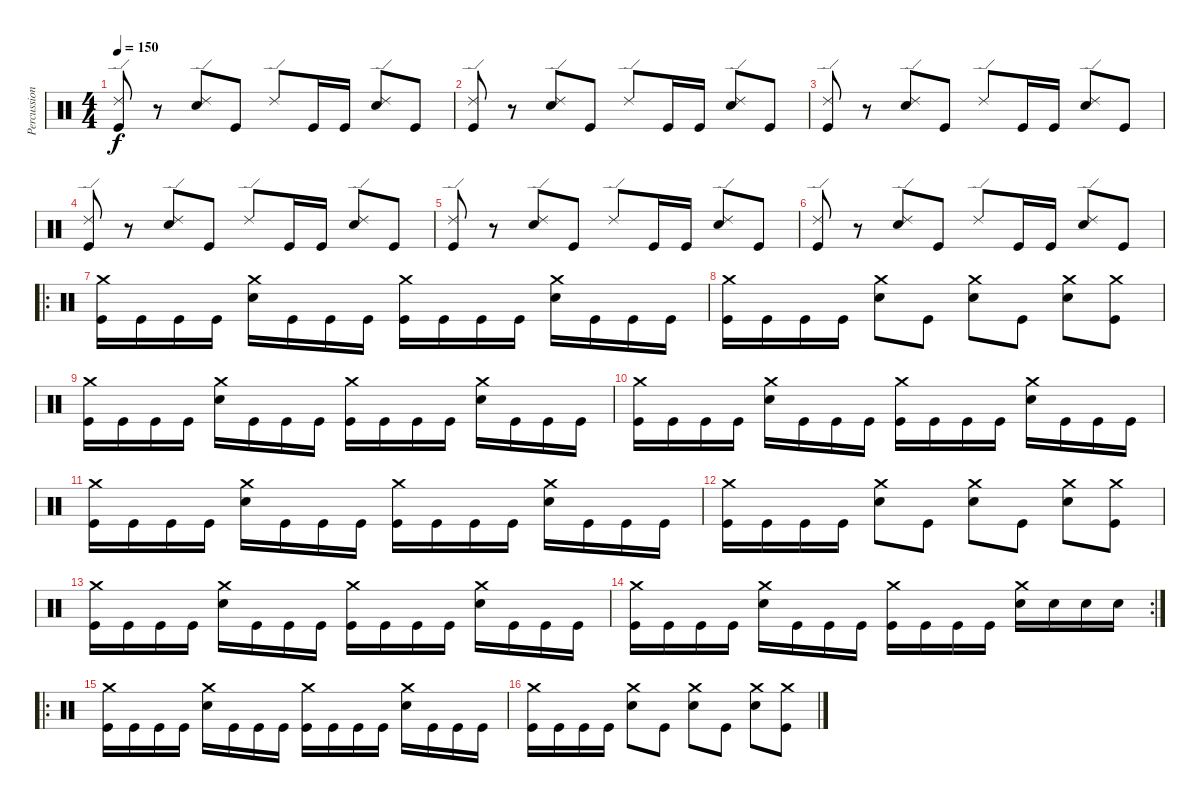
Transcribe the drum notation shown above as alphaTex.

\track ("Percussion" "Percussion") {instrument percussion}
\staff {score}
\articulation defaults
\ts (4 4)
\tempo 150
\clef neutral
\ks c
("Ride (edge) 2" "Kick (hit)").8{dy f} r.8 ("Ride (edge) 2" "Electric Snare (hit)").8 "Kick (hit)".8 "Ride (edge) 2".8 "Kick (hit)".16 "Kick (hit)".16 ("Ride (edge) 2" "Electric Snare (hit)").8 "Kick (hit)".8 |
("Ride (edge) 2" "Kick (hit)").8 r.8 ("Ride (edge) 2" "Electric Snare (hit)").8 "Kick (hit)".8 "Ride (edge) 2".8 "Kick (hit)".16 "Kick (hit)".16 ("Ride (edge) 2" "Electric Snare (hit)").8 "Kick (hit)".8 |
("Ride (edge) 2" "Kick (hit)").8 r.8 ("Ride (edge) 2" "Electric Snare (hit)").8 "Kick (hit)".8 "Ride (edge) 2".8 "Kick (hit)".16 "Kick (hit)".16 ("Ride (edge) 2" "Electric Snare (hit)").8 "Kick (hit)".8 |
("Ride (edge) 2" "Kick (hit)").8 r.8 ("Ride (edge) 2" "Electric Snare (hit)").8 "Kick (hit)".8 "Ride (edge) 2".8 "Kick (hit)".16 "Kick (hit)".16 ("Ride (edge) 2" "Electric Snare (hit)").8 "Kick (hit)".8 |
("Ride (edge) 2" "Kick (hit)").8 r.8 ("Ride (edge) 2" "Electric Snare (hit)").8 "Kick (hit)".8 "Ride (edge) 2".8 "Kick (hit)".16 "Kick (hit)".16 ("Ride (edge) 2" "Electric Snare (hit)").8 "Kick (hit)".8 |
("Ride (edge) 2" "Kick (hit)").8 r.8 ("Ride (edge) 2" "Electric Snare (hit)").8 "Kick (hit)".8 "Ride (edge) 2".8 "Kick (hit)".16 "Kick (hit)".16 ("Ride (edge) 2" "Electric Snare (hit)").8 "Kick (hit)".8 |
\ro
("Crash medium (hit)" "Kick (hit)").16 "Kick (hit)".16 "Kick (hit)".16 "Kick (hit)".16 ("Crash medium (hit)" "Electric Snare (hit)").16 "Kick (hit)".16 "Kick (hit)".16 "Kick (hit)".16 ("Crash medium (hit)" "Kick (hit)").16 "Kick (hit)".16 "Kick (hit)".16 "Kick (hit)".16 ("Crash medium (hit)" "Electric Snare (hit)").16 "Kick (hit)".16 "Kick (hit)".16 "Kick (hit)".16 |
("Crash medium (hit)" "Kick (hit)").16 "Kick (hit)".16 "Kick (hit)".16 "Kick (hit)".16 ("Crash medium (hit)" "Electric Snare (hit)").8 "Kick (hit)".8 ("Crash medium (hit)" "Electric Snare (hit)").8 "Kick (hit)".8 ("Crash medium (hit)" "Electric Snare (hit)").8 ("Crash medium (hit)" "Kick (hit)").8 |
("Crash medium (hit)" "Kick (hit)").16 "Kick (hit)".16 "Kick (hit)".16 "Kick (hit)".16 ("Crash medium (hit)" "Electric Snare (hit)").16 "Kick (hit)".16 "Kick (hit)".16 "Kick (hit)".16 ("Crash medium (hit)" "Kick (hit)").16 "Kick (hit)".16 "Kick (hit)".16 "Kick (hit)".16 ("Crash medium (hit)" "Electric Snare (hit)").16 "Kick (hit)".16 "Kick (hit)".16 "Kick (hit)".16 |
("Crash medium (hit)" "Kick (hit)").16 "Kick (hit)".16 "Kick (hit)".16 "Kick (hit)".16 ("Crash medium (hit)" "Electric Snare (hit)").16 "Kick (hit)".16 "Kick (hit)".16 "Kick (hit)".16 ("Crash medium (hit)" "Kick (hit)").16 "Kick (hit)".16 "Kick (hit)".16 "Kick (hit)".16 ("Crash medium (hit)" "Electric Snare (hit)").16 "Kick (hit)".16 "Kick (hit)".16 "Kick (hit)".16 |
("Crash medium (hit)" "Kick (hit)").16 "Kick (hit)".16 "Kick (hit)".16 "Kick (hit)".16 ("Crash medium (hit)" "Electric Snare (hit)").16 "Kick (hit)".16 "Kick (hit)".16 "Kick (hit)".16 ("Crash medium (hit)" "Kick (hit)").16 "Kick (hit)".16 "Kick (hit)".16 "Kick (hit)".16 ("Crash medium (hit)" "Electric Snare (hit)").16 "Kick (hit)".16 "Kick (hit)".16 "Kick (hit)".16 |
("Crash medium (hit)" "Kick (hit)").16 "Kick (hit)".16 "Kick (hit)".16 "Kick (hit)".16 ("Crash medium (hit)" "Electric Snare (hit)").8 "Kick (hit)".8 ("Crash medium (hit)" "Electric Snare (hit)").8 "Kick (hit)".8 ("Crash medium (hit)" "Electric Snare (hit)").8 ("Crash medium (hit)" "Kick (hit)").8 |
("Crash medium (hit)" "Kick (hit)").16 "Kick (hit)".16 "Kick (hit)".16 "Kick (hit)".16 ("Crash medium (hit)" "Electric Snare (hit)").16 "Kick (hit)".16 "Kick (hit)".16 "Kick (hit)".16 ("Crash medium (hit)" "Kick (hit)").16 "Kick (hit)".16 "Kick (hit)".16 "Kick (hit)".16 ("Crash medium (hit)" "Electric Snare (hit)").16 "Kick (hit)".16 "Kick (hit)".16 "Kick (hit)".16 |
\rc 2
("Crash medium (hit)" "Kick (hit)").16 "Kick (hit)".16 "Kick (hit)".16 "Kick (hit)".16 ("Crash medium (hit)" "Electric Snare (hit)").16 "Kick (hit)".16 "Kick (hit)".16 "Kick (hit)".16 ("Crash medium (hit)" "Kick (hit)").16 "Kick (hit)".16 "Kick (hit)".16 "Kick (hit)".16 ("Crash medium (hit)" "Electric Snare (hit)").16 "Electric Snare (hit)".16 "Electric Snare (hit)".16 "Electric Snare (hit)".16 |
\ro
("Crash medium (hit)" "Kick (hit)").16 "Kick (hit)".16 "Kick (hit)".16 "Kick (hit)".16 ("Crash medium (hit)" "Electric Snare (hit)").16 "Kick (hit)".16 "Kick (hit)".16 "Kick (hit)".16 ("Crash medium (hit)" "Kick (hit)").16 "Kick (hit)".16 "Kick (hit)".16 "Kick (hit)".16 ("Crash medium (hit)" "Electric Snare (hit)").16 "Kick (hit)".16 "Kick (hit)".16 "Kick (hit)".16 |
("Crash medium (hit)" "Kick (hit)").16 "Kick (hit)".16 "Kick (hit)".16 "Kick (hit)".16 ("Crash medium (hit)" "Electric Snare (hit)").8 "Kick (hit)".8 ("Crash medium (hit)" "Electric Snare (hit)").8 "Kick (hit)".8 ("Crash medium (hit)" "Electric Snare (hit)").8 ("Crash medium (hit)" "Kick (hit)").8
